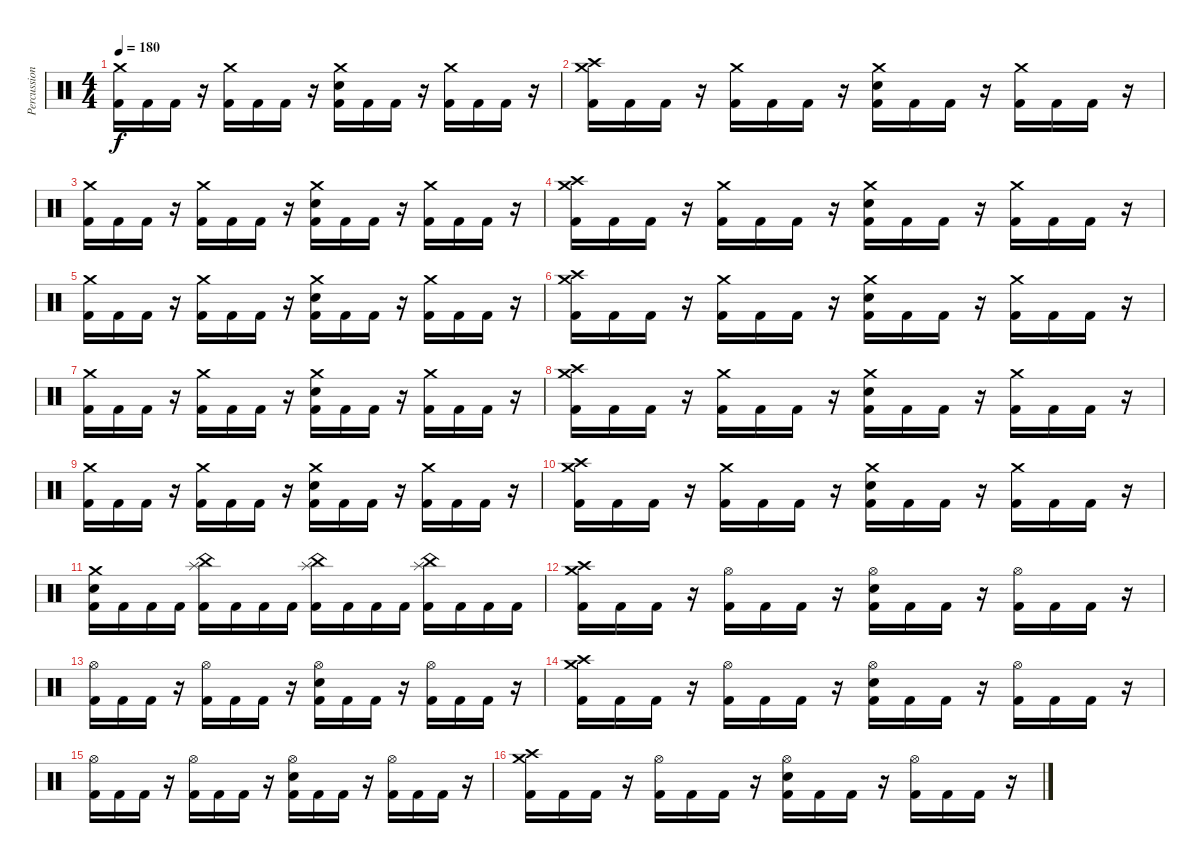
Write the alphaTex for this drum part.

\track ("Percussion" "Percussion") {instrument percussion}
\staff {score}
\articulation defaults
\ts (4 4)
\tempo 180
\clef neutral
\ks c
("Crash medium (hit)" "Kick (hit) 2").16{dy f} "Kick (hit) 2".16 "Kick (hit) 2".16 r.16 ("Crash medium (hit)" "Kick (hit) 2").16 "Kick (hit) 2".16 "Kick (hit) 2".16 r.16 ("Crash medium (hit)" "Electric Snare (hit)" "Kick (hit) 2").16 "Kick (hit) 2".16 "Kick (hit) 2".16 r.16 ("Crash medium (hit)" "Kick (hit) 2").16 "Kick (hit) 2".16 "Kick (hit) 2".16 r.16 |
("Crash medium (hit)" "Crash high (hit)" "Kick (hit) 2").16 "Kick (hit) 2".16 "Kick (hit) 2".16 r.16 ("Crash medium (hit)" "Kick (hit) 2").16 "Kick (hit) 2".16 "Kick (hit) 2".16 r.16 ("Crash medium (hit)" "Electric Snare (hit)" "Kick (hit) 2").16 "Kick (hit) 2".16 "Kick (hit) 2".16 r.16 ("Crash medium (hit)" "Kick (hit) 2").16 "Kick (hit) 2".16 "Kick (hit) 2".16 r.16 |
("Crash medium (hit)" "Kick (hit) 2").16 "Kick (hit) 2".16 "Kick (hit) 2".16 r.16 ("Crash medium (hit)" "Kick (hit) 2").16 "Kick (hit) 2".16 "Kick (hit) 2".16 r.16 ("Crash medium (hit)" "Electric Snare (hit)" "Kick (hit) 2").16 "Kick (hit) 2".16 "Kick (hit) 2".16 r.16 ("Crash medium (hit)" "Kick (hit) 2").16 "Kick (hit) 2".16 "Kick (hit) 2".16 r.16 |
("Crash medium (hit)" "Crash high (hit)" "Kick (hit) 2").16 "Kick (hit) 2".16 "Kick (hit) 2".16 r.16 ("Crash medium (hit)" "Kick (hit) 2").16 "Kick (hit) 2".16 "Kick (hit) 2".16 r.16 ("Crash medium (hit)" "Electric Snare (hit)" "Kick (hit) 2").16 "Kick (hit) 2".16 "Kick (hit) 2".16 r.16 ("Crash medium (hit)" "Kick (hit) 2").16 "Kick (hit) 2".16 "Kick (hit) 2".16 r.16 |
("Crash medium (hit)" "Kick (hit) 2").16 "Kick (hit) 2".16 "Kick (hit) 2".16 r.16 ("Crash medium (hit)" "Kick (hit) 2").16 "Kick (hit) 2".16 "Kick (hit) 2".16 r.16 ("Crash medium (hit)" "Electric Snare (hit)" "Kick (hit) 2").16 "Kick (hit) 2".16 "Kick (hit) 2".16 r.16 ("Crash medium (hit)" "Kick (hit) 2").16 "Kick (hit) 2".16 "Kick (hit) 2".16 r.16 |
("Crash medium (hit)" "Crash high (hit)" "Kick (hit) 2").16 "Kick (hit) 2".16 "Kick (hit) 2".16 r.16 ("Crash medium (hit)" "Kick (hit) 2").16 "Kick (hit) 2".16 "Kick (hit) 2".16 r.16 ("Crash medium (hit)" "Electric Snare (hit)" "Kick (hit) 2").16 "Kick (hit) 2".16 "Kick (hit) 2".16 r.16 ("Crash medium (hit)" "Kick (hit) 2").16 "Kick (hit) 2".16 "Kick (hit) 2".16 r.16 |
("Crash medium (hit)" "Kick (hit) 2").16 "Kick (hit) 2".16 "Kick (hit) 2".16 r.16 ("Crash medium (hit)" "Kick (hit) 2").16 "Kick (hit) 2".16 "Kick (hit) 2".16 r.16 ("Crash medium (hit)" "Electric Snare (hit)" "Kick (hit) 2").16 "Kick (hit) 2".16 "Kick (hit) 2".16 r.16 ("Crash medium (hit)" "Kick (hit) 2").16 "Kick (hit) 2".16 "Kick (hit) 2".16 r.16 |
("Crash medium (hit)" "Crash high (hit)" "Kick (hit) 2").16 "Kick (hit) 2".16 "Kick (hit) 2".16 r.16 ("Crash medium (hit)" "Kick (hit) 2").16 "Kick (hit) 2".16 "Kick (hit) 2".16 r.16 ("Crash medium (hit)" "Electric Snare (hit)" "Kick (hit) 2").16 "Kick (hit) 2".16 "Kick (hit) 2".16 r.16 ("Crash medium (hit)" "Kick (hit) 2").16 "Kick (hit) 2".16 "Kick (hit) 2".16 r.16 |
("Crash medium (hit)" "Kick (hit) 2").16 "Kick (hit) 2".16 "Kick (hit) 2".16 r.16 ("Crash medium (hit)" "Kick (hit) 2").16 "Kick (hit) 2".16 "Kick (hit) 2".16 r.16 ("Crash medium (hit)" "Electric Snare (hit)" "Kick (hit) 2").16 "Kick (hit) 2".16 "Kick (hit) 2".16 r.16 ("Crash medium (hit)" "Kick (hit) 2").16 "Kick (hit) 2".16 "Kick (hit) 2".16 r.16 |
("Crash medium (hit)" "Crash high (hit)" "Kick (hit) 2").16 "Kick (hit) 2".16 "Kick (hit) 2".16 r.16 ("Crash medium (hit)" "Kick (hit) 2").16 "Kick (hit) 2".16 "Kick (hit) 2".16 r.16 ("Crash medium (hit)" "Electric Snare (hit)" "Kick (hit) 2").16 "Kick (hit) 2".16 "Kick (hit) 2".16 r.16 ("Crash medium (hit)" "Kick (hit) 2").16 "Kick (hit) 2".16 "Kick (hit) 2".16 r.16 |
("Crash medium (hit)" "Electric Snare (hit)" "Kick (hit) 2").16 "Kick (hit) 2".16 "Kick (hit) 2".16 "Kick (hit) 2".16 ("Splash (hit)" "China (hit)" "Kick (hit) 2").16 "Kick (hit) 2".16 "Kick (hit) 2".16 "Kick (hit) 2".16 ("Splash (hit)" "China (hit)" "Kick (hit) 2").16 "Kick (hit) 2".16 "Kick (hit) 2".16 "Kick (hit) 2".16 ("Splash (hit)" "China (hit)" "Kick (hit) 2").16 "Kick (hit) 2".16 "Kick (hit) 2".16 "Kick (hit) 2".16 |
("Crash medium (hit)" "Crash high (hit)" "Kick (hit) 2").16 "Kick (hit) 2".16 "Kick (hit) 2".16 r.16 ("Hi-Hat (open)" "Kick (hit) 2").16 "Kick (hit) 2".16 "Kick (hit) 2".16 r.16 ("Hi-Hat (open)" "Electric Snare (hit)" "Kick (hit) 2").16 "Kick (hit) 2".16 "Kick (hit) 2".16 r.16 ("Hi-Hat (open)" "Kick (hit) 2").16 "Kick (hit) 2".16 "Kick (hit) 2".16 r.16 |
("Hi-Hat (open)" "Kick (hit) 2").16 "Kick (hit) 2".16 "Kick (hit) 2".16 r.16 ("Hi-Hat (open)" "Kick (hit) 2").16 "Kick (hit) 2".16 "Kick (hit) 2".16 r.16 ("Hi-Hat (open)" "Electric Snare (hit)" "Kick (hit) 2").16 "Kick (hit) 2".16 "Kick (hit) 2".16 r.16 ("Hi-Hat (open)" "Kick (hit) 2").16 "Kick (hit) 2".16 "Kick (hit) 2".16 r.16 |
("Crash medium (hit)" "Crash high (hit)" "Kick (hit) 2").16 "Kick (hit) 2".16 "Kick (hit) 2".16 r.16 ("Hi-Hat (open)" "Kick (hit) 2").16 "Kick (hit) 2".16 "Kick (hit) 2".16 r.16 ("Hi-Hat (open)" "Electric Snare (hit)" "Kick (hit) 2").16 "Kick (hit) 2".16 "Kick (hit) 2".16 r.16 ("Hi-Hat (open)" "Kick (hit) 2").16 "Kick (hit) 2".16 "Kick (hit) 2".16 r.16 |
("Hi-Hat (open)" "Kick (hit) 2").16 "Kick (hit) 2".16 "Kick (hit) 2".16 r.16 ("Hi-Hat (open)" "Kick (hit) 2").16 "Kick (hit) 2".16 "Kick (hit) 2".16 r.16 ("Hi-Hat (open)" "Electric Snare (hit)" "Kick (hit) 2").16 "Kick (hit) 2".16 "Kick (hit) 2".16 r.16 ("Hi-Hat (open)" "Kick (hit) 2").16 "Kick (hit) 2".16 "Kick (hit) 2".16 r.16 |
("Crash medium (hit)" "Crash high (hit)" "Kick (hit) 2").16 "Kick (hit) 2".16 "Kick (hit) 2".16 r.16 ("Hi-Hat (open)" "Kick (hit) 2").16 "Kick (hit) 2".16 "Kick (hit) 2".16 r.16 ("Hi-Hat (open)" "Electric Snare (hit)" "Kick (hit) 2").16 "Kick (hit) 2".16 "Kick (hit) 2".16 r.16 ("Hi-Hat (open)" "Kick (hit) 2").16 "Kick (hit) 2".16 "Kick (hit) 2".16 r.16
